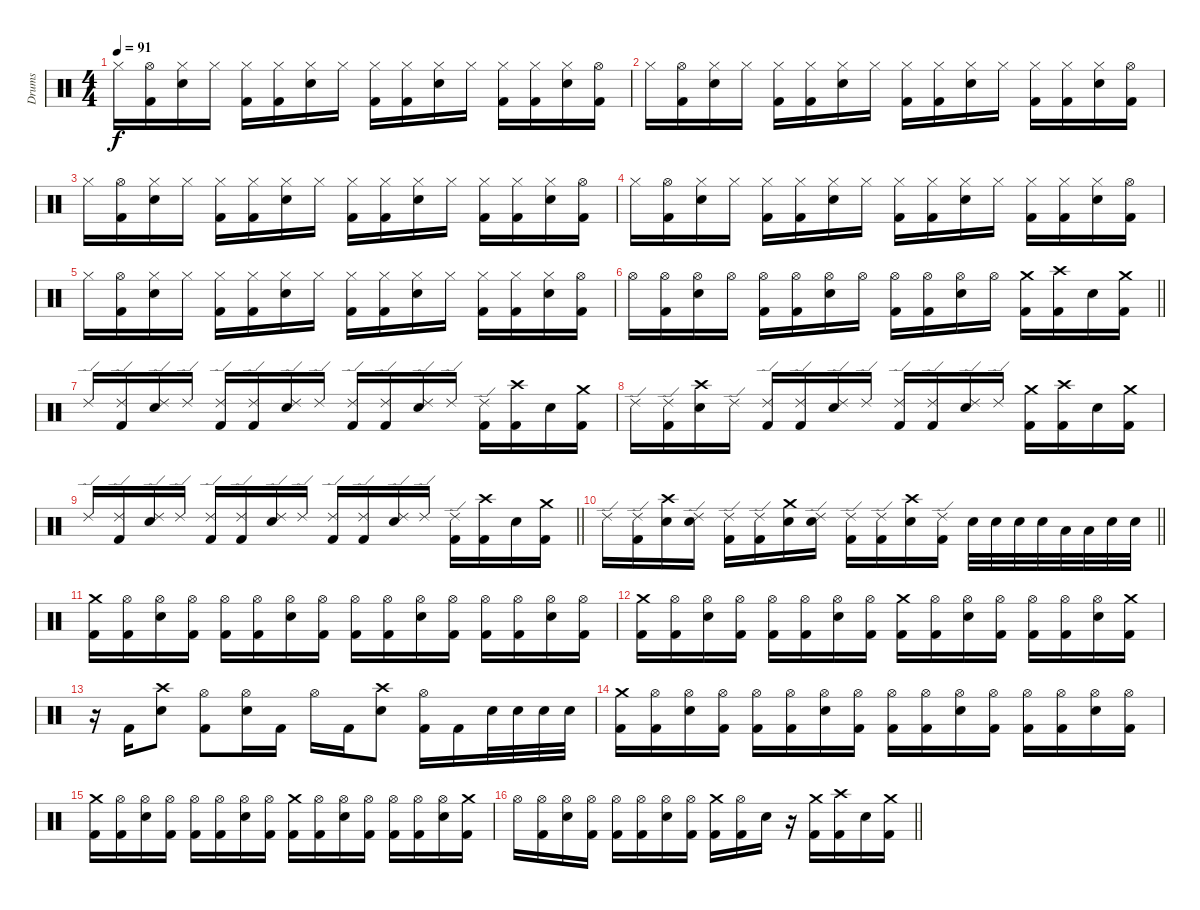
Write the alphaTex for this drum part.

\track ("Drums" "Drums") {instrument percussion}
\staff {score}
\articulation defaults
\ts (4 4)
\tempo 91
\clef neutral
\ks c "Hi-Hat (closed)".16{dy f}
("Hi-Hat (open)" "Kick (hit) 2").16 ("Hi-Hat (closed)" "Electric Snare (hit)").16 "Hi-Hat (closed)".16 ("Hi-Hat (closed)" "Kick (hit) 2").16 ("Hi-Hat (closed)" "Kick (hit) 2").16 ("Hi-Hat (closed)" "Electric Snare (hit)").16 "Hi-Hat (closed)".16 ("Hi-Hat (closed)" "Kick (hit) 2").16 ("Hi-Hat (closed)" "Kick (hit) 2").16 ("Hi-Hat (closed)" "Electric Snare (hit)").16 "Hi-Hat (closed)".16 ("Hi-Hat (closed)" "Kick (hit) 2").16 ("Hi-Hat (closed)" "Kick (hit) 2").16 ("Hi-Hat (closed)" "Electric Snare (hit)").16 ("Hi-Hat (open)" "Kick (hit) 2").16 |
"Hi-Hat (closed)".16 ("Hi-Hat (open)" "Kick (hit) 2").16 ("Hi-Hat (closed)" "Electric Snare (hit)").16 "Hi-Hat (closed)".16 ("Hi-Hat (closed)" "Kick (hit) 2").16 ("Hi-Hat (closed)" "Kick (hit) 2").16 ("Hi-Hat (closed)" "Electric Snare (hit)").16 "Hi-Hat (closed)".16 ("Hi-Hat (closed)" "Kick (hit) 2").16 ("Hi-Hat (closed)" "Kick (hit) 2").16 ("Hi-Hat (closed)" "Electric Snare (hit)").16 "Hi-Hat (closed)".16 ("Hi-Hat (closed)" "Kick (hit) 2").16 ("Hi-Hat (closed)" "Kick (hit) 2").16 ("Hi-Hat (closed)" "Electric Snare (hit)").16 ("Hi-Hat (open)" "Kick (hit) 2").16 |
"Hi-Hat (closed)".16 ("Hi-Hat (open)" "Kick (hit) 2").16 ("Hi-Hat (closed)" "Electric Snare (hit)").16 "Hi-Hat (closed)".16 ("Hi-Hat (closed)" "Kick (hit) 2").16 ("Hi-Hat (closed)" "Kick (hit) 2").16 ("Hi-Hat (closed)" "Electric Snare (hit)").16 "Hi-Hat (closed)".16 ("Hi-Hat (closed)" "Kick (hit) 2").16 ("Hi-Hat (closed)" "Kick (hit) 2").16 ("Hi-Hat (closed)" "Electric Snare (hit)").16 "Hi-Hat (closed)".16 ("Hi-Hat (closed)" "Kick (hit) 2").16 ("Hi-Hat (closed)" "Kick (hit) 2").16 ("Hi-Hat (closed)" "Electric Snare (hit)").16 ("Hi-Hat (open)" "Kick (hit) 2").16 |
"Hi-Hat (closed)".16 ("Hi-Hat (open)" "Kick (hit) 2").16 ("Hi-Hat (closed)" "Electric Snare (hit)").16 "Hi-Hat (closed)".16 ("Hi-Hat (closed)" "Kick (hit) 2").16 ("Hi-Hat (closed)" "Kick (hit) 2").16 ("Hi-Hat (closed)" "Electric Snare (hit)").16 "Hi-Hat (closed)".16 ("Hi-Hat (closed)" "Kick (hit) 2").16 ("Hi-Hat (closed)" "Kick (hit) 2").16 ("Hi-Hat (closed)" "Electric Snare (hit)").16 "Hi-Hat (closed)".16 ("Hi-Hat (closed)" "Kick (hit) 2").16 ("Hi-Hat (closed)" "Kick (hit) 2").16 ("Hi-Hat (closed)" "Electric Snare (hit)").16 ("Hi-Hat (open)" "Kick (hit) 2").16 |
"Hi-Hat (closed)".16 ("Hi-Hat (open)" "Kick (hit) 2").16 ("Hi-Hat (closed)" "Electric Snare (hit)").16 "Hi-Hat (closed)".16 ("Hi-Hat (closed)" "Kick (hit) 2").16 ("Hi-Hat (closed)" "Kick (hit) 2").16 ("Hi-Hat (closed)" "Electric Snare (hit)").16 "Hi-Hat (closed)".16 ("Hi-Hat (closed)" "Kick (hit) 2").16 ("Hi-Hat (closed)" "Kick (hit) 2").16 ("Hi-Hat (closed)" "Electric Snare (hit)").16 "Hi-Hat (closed)".16 ("Hi-Hat (closed)" "Kick (hit) 2").16 ("Hi-Hat (closed)" "Kick (hit) 2").16 ("Hi-Hat (closed)" "Electric Snare (hit)").16 ("Hi-Hat (open)" "Kick (hit) 2").16 |
\barLineRight lightlight "Hi-Hat (open)".16
("Hi-Hat (open)" "Kick (hit) 2").16 ("Hi-Hat (open)" "Electric Snare (hit)").16 "Hi-Hat (open)".16 ("Hi-Hat (open)" "Kick (hit) 2").16 ("Hi-Hat (open)" "Kick (hit) 2").16 ("Hi-Hat (open)" "Electric Snare (hit)").16 "Hi-Hat (open)".16 ("Hi-Hat (open)" "Kick (hit) 2").16 ("Hi-Hat (open)" "Kick (hit) 2").16 ("Hi-Hat (open)" "Electric Snare (hit)").16 "Hi-Hat (open)".16 ("Crash medium (hit)" "Kick (hit) 2").16 ("Crash high (hit)" "Kick (hit) 2").16 "Electric Snare (hit)".16 ("Crash medium (hit)" "Kick (hit) 2").16 |
"Ride (edge) 2".16 ("Ride (edge) 2" "Kick (hit) 2").16 ("Ride (edge) 2" "Electric Snare (hit)").16 "Ride (edge) 2".16 ("Ride (edge) 2" "Kick (hit) 2").16 ("Ride (edge) 2" "Kick (hit) 2").16 ("Ride (edge) 2" "Electric Snare (hit)").16 "Ride (edge) 2".16 ("Ride (edge) 2" "Kick (hit) 2").16 ("Ride (edge) 2" "Kick (hit) 2").16 ("Ride (edge) 2" "Electric Snare (hit)").16 "Ride (edge) 2".16 ("Ride (edge) 2" "Kick (hit) 2").16 ("Crash high (hit)" "Kick (hit) 2").16 "Electric Snare (hit)".16 ("Crash medium (hit)" "Kick (hit) 2").16 |
"Ride (edge) 2".16 ("Ride (edge) 2" "Kick (hit) 2").16 ("Crash high (hit)" "Electric Snare (hit)").16 "Ride (edge) 2".16 ("Ride (edge) 2" "Kick (hit) 2").16 ("Ride (edge) 2" "Kick (hit) 2").16 ("Ride (edge) 2" "Electric Snare (hit)").16 "Ride (edge) 2".16 ("Ride (edge) 2" "Kick (hit) 2").16 ("Ride (edge) 2" "Kick (hit) 2").16 ("Ride (edge) 2" "Electric Snare (hit)").16 "Ride (edge) 2".16 ("Crash medium (hit)" "Kick (hit) 2").16 ("Crash high (hit)" "Kick (hit) 2").16 "Electric Snare (hit)".16 ("Crash medium (hit)" "Kick (hit) 2").16 |
\barLineRight lightlight "Ride (edge) 2".16
("Ride (edge) 2" "Kick (hit) 2").16 ("Ride (edge) 2" "Electric Snare (hit)").16 "Ride (edge) 2".16 ("Ride (edge) 2" "Kick (hit) 2").16 ("Ride (edge) 2" "Kick (hit) 2").16 ("Ride (edge) 2" "Electric Snare (hit)").16 "Ride (edge) 2".16 ("Ride (edge) 2" "Kick (hit) 2").16 ("Ride (edge) 2" "Kick (hit) 2").16 ("Ride (edge) 2" "Electric Snare (hit)").16 "Ride (edge) 2".16 ("Ride (edge) 2" "Kick (hit) 2").16 ("Crash high (hit)" "Kick (hit) 2").16 "Electric Snare (hit)".16 ("Crash medium (hit)" "Kick (hit) 2").16 |
\barLineRight lightlight "Ride (edge) 2".16
("Ride (edge) 2" "Kick (hit) 2").16 ("Crash high (hit)" "Electric Snare (hit)").16 ("Ride (edge) 2" "Electric Snare (hit)").16 ("Ride (edge) 2" "Kick (hit) 2").16 ("Ride (edge) 2" "Kick (hit) 2").16 ("Crash medium (hit)" "Electric Snare (hit)").16 ("Ride (edge) 2" "Electric Snare (hit)").16 ("Ride (edge) 2" "Kick (hit) 2").16 ("Ride (edge) 2" "Kick (hit) 2").16 ("Crash high (hit)" "Electric Snare (hit)").16 ("Ride (edge) 2" "Kick (hit) 2").16 "Electric Snare (hit)".32 "Electric Snare (hit)".32 "Electric Snare (hit)".32 "Electric Snare (hit)".32 "Low Tom (hit)".32 "Low Tom (hit)".32 "Electric Snare (hit)".32 "Electric Snare (hit)".32 |
("Crash medium (hit)" "Kick (hit) 2").16 ("Hi-Hat (open)" "Kick (hit) 2").16 ("Hi-Hat (open)" "Electric Snare (hit)").16 ("Hi-Hat (open)" "Kick (hit) 2").16 ("Hi-Hat (open)" "Kick (hit) 2").16 ("Hi-Hat (open)" "Kick (hit) 2").16 ("Hi-Hat (open)" "Electric Snare (hit)").16 ("Hi-Hat (open)" "Kick (hit) 2").16 ("Hi-Hat (open)" "Kick (hit) 2").16 ("Hi-Hat (open)" "Kick (hit) 2").16 ("Hi-Hat (open)" "Electric Snare (hit)").16 ("Hi-Hat (open)" "Kick (hit) 2").16 ("Hi-Hat (open)" "Kick (hit) 2").16 ("Hi-Hat (open)" "Kick (hit) 2").16 ("Hi-Hat (open)" "Electric Snare (hit)").16 ("Hi-Hat (open)" "Kick (hit) 2").16 |
("Crash medium (hit)" "Kick (hit) 2").16 ("Hi-Hat (open)" "Kick (hit) 2").16 ("Hi-Hat (open)" "Electric Snare (hit)").16 ("Hi-Hat (open)" "Kick (hit) 2").16 ("Hi-Hat (open)" "Kick (hit) 2").16 ("Hi-Hat (open)" "Kick (hit) 2").16 ("Hi-Hat (open)" "Electric Snare (hit)").16 ("Hi-Hat (open)" "Kick (hit) 2").16 ("Crash medium (hit)" "Kick (hit) 2").16 ("Hi-Hat (open)" "Kick (hit) 2").16 ("Hi-Hat (open)" "Electric Snare (hit)").16 ("Hi-Hat (open)" "Kick (hit) 2").16 ("Hi-Hat (open)" "Kick (hit) 2").16 ("Hi-Hat (open)" "Kick (hit) 2").16 ("Hi-Hat (open)" "Electric Snare (hit)").16 ("Crash medium (hit)" "Kick (hit) 2").16 |
r.16 "Kick (hit) 2".16 ("Crash high (hit)" "Electric Snare (hit)").8 ("Hi-Hat (open)" "Kick (hit) 2").8 ("Hi-Hat (open)" "Electric Snare (hit)").16 "Kick (hit) 2".16 "Hi-Hat (open)".16 "Kick (hit) 2".16 ("Crash high (hit)" "Electric Snare (hit)").8 ("Hi-Hat (open)" "Kick (hit) 2").16 "Kick (hit) 2".16 "Electric Snare (hit)".32 "Electric Snare (hit)".32 "Electric Snare (hit)".32 "Electric Snare (hit)".32 |
("Crash medium (hit)" "Kick (hit) 2").16 ("Hi-Hat (open)" "Kick (hit) 2").16 ("Hi-Hat (open)" "Electric Snare (hit)").16 ("Hi-Hat (open)" "Kick (hit) 2").16 ("Hi-Hat (open)" "Kick (hit) 2").16 ("Hi-Hat (open)" "Kick (hit) 2").16 ("Hi-Hat (open)" "Electric Snare (hit)").16 ("Hi-Hat (open)" "Kick (hit) 2").16 ("Hi-Hat (open)" "Kick (hit) 2").16 ("Hi-Hat (open)" "Kick (hit) 2").16 ("Hi-Hat (open)" "Electric Snare (hit)").16 ("Hi-Hat (open)" "Kick (hit) 2").16 ("Hi-Hat (open)" "Kick (hit) 2").16 ("Hi-Hat (open)" "Kick (hit) 2").16 ("Hi-Hat (open)" "Electric Snare (hit)").16 ("Hi-Hat (open)" "Kick (hit) 2").16 |
("Crash medium (hit)" "Kick (hit) 2").16 ("Hi-Hat (open)" "Kick (hit) 2").16 ("Hi-Hat (open)" "Electric Snare (hit)").16 ("Hi-Hat (open)" "Kick (hit) 2").16 ("Hi-Hat (open)" "Kick (hit) 2").16 ("Hi-Hat (open)" "Kick (hit) 2").16 ("Hi-Hat (open)" "Electric Snare (hit)").16 ("Hi-Hat (open)" "Kick (hit) 2").16 ("Crash medium (hit)" "Kick (hit) 2").16 ("Hi-Hat (open)" "Kick (hit) 2").16 ("Hi-Hat (open)" "Electric Snare (hit)").16 ("Hi-Hat (open)" "Kick (hit) 2").16 ("Hi-Hat (open)" "Kick (hit) 2").16 ("Hi-Hat (open)" "Kick (hit) 2").16 ("Hi-Hat (open)" "Electric Snare (hit)").16 ("Crash medium (hit)" "Kick (hit) 2").16 |
\barLineRight lightlight "Hi-Hat (open)".16
("Hi-Hat (open)" "Kick (hit) 2").16 ("Hi-Hat (open)" "Electric Snare (hit)").16 ("Hi-Hat (open)" "Kick (hit) 2").16 ("Hi-Hat (open)" "Kick (hit) 2").16 ("Hi-Hat (open)" "Kick (hit) 2").16 ("Hi-Hat (open)" "Electric Snare (hit)").16 ("Hi-Hat (open)" "Kick (hit) 2").16 ("Crash medium (hit)" "Kick (hit) 2").16 ("Hi-Hat (open)" "Kick (hit) 2").16 "Electric Snare (hit)".16 r.16 ("Crash medium (hit)" "Kick (hit) 2").16 ("Crash high (hit)" "Kick (hit) 2").16 "Electric Snare (hit)".16 ("Crash medium (hit)" "Kick (hit) 2").16
